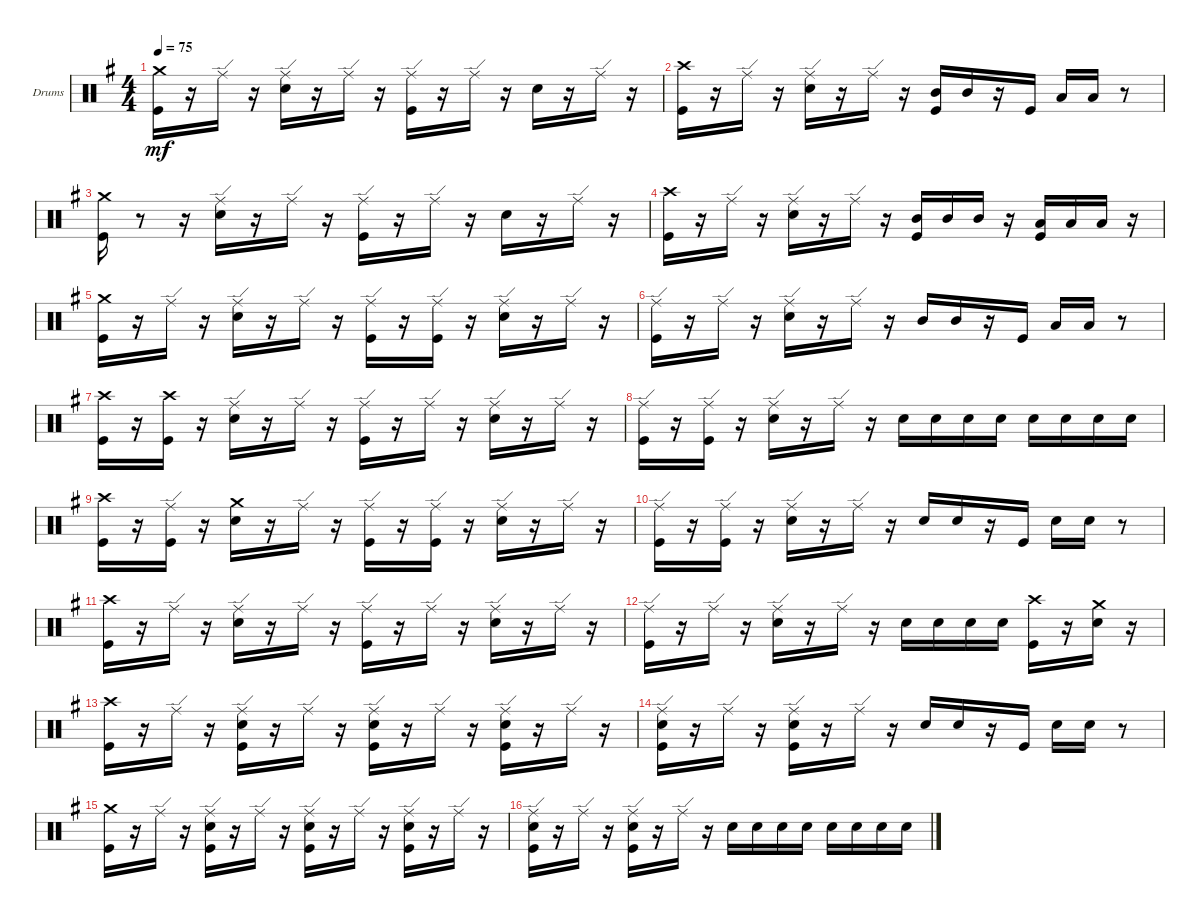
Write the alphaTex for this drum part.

\bracketExtendMode groupsimilarinstruments
\firstSystemTrackNameOrientation horizontal
\otherSystemsTrackNameOrientation horizontal
\track ("Drumkit" "Drums") {instrument percussion}
\staff {score}
\articulation defaults
\ts (4 4)
\tempo 75
\clef neutral
\ks eminor
("Kick (hit)" "Crash medium (hit)").16{dy mf} r.16 "Ride (edge)".16 r.16 ("Snare (hit) 2" "Ride (edge)").16 r.16 "Ride (edge)".16 r.16 ("Kick (hit)" "Ride (edge)").16 r.16 "Ride (edge)".16 r.16 "Snare (hit) 2".16 r.16 "Ride (edge)".16 r.16 |
("Kick (hit)" "Crash high (hit)").16 r.16 "Ride (edge)".16 r.16 ("Snare (hit) 2" "Ride (edge)").16 r.16 "Ride (edge)".16 r.16 ("Kick (hit)" "Mid Tom (hit)").16 "Mid Tom (hit)".16 r.16 "Kick (hit)".16 "Low Tom (hit)".16 "Low Tom (hit)".16 r.8 |
("Kick (hit)" "Crash medium (hit)").16 r.8 r.16 ("Snare (hit) 2" "Ride (edge)").16 r.16 "Ride (edge)".16 r.16 ("Kick (hit)" "Ride (edge)").16 r.16 "Ride (edge)".16 r.16 "Snare (hit) 2".16 r.16 "Ride (edge)".16 r.16 |
("Kick (hit)" "Crash high (hit)").16 r.16 "Ride (edge)".16 r.16 ("Snare (hit) 2" "Ride (edge)").16 r.16 "Ride (edge)".16 r.16 ("Kick (hit)" "Mid Tom (hit)").16 "Mid Tom (hit)".16 "Mid Tom (hit)".16 r.16 ("Kick (hit)" "Low Tom (hit)").16 "Low Tom (hit)".16 "Low Tom (hit)".16 r.16 |
("Kick (hit)" "Crash medium (hit)").16 r.16 "Ride (edge)".16 r.16 ("Snare (hit) 2" "Ride (edge)").16 r.16 "Ride (edge)".16 r.16 ("Kick (hit)" "Ride (edge)").16 r.16 ("Kick (hit)" "Ride (edge)").16 r.16 ("Snare (hit) 2" "Ride (edge)").16 r.16 "Ride (edge)".16 r.16 |
("Kick (hit)" "Ride (edge)").16 r.16 "Ride (edge)".16 r.16 ("Snare (hit) 2" "Ride (edge)").16 r.16 "Ride (edge)".16 r.16 "Mid Tom (hit)".16 "Mid Tom (hit)".16 r.16 "Kick (hit)".16 "Low Tom (hit)".16 "Low Tom (hit)".16 r.8 |
("Kick (hit)" "Crash high (hit)").16 r.16 ("Kick (hit)" "Crash high (hit)").16 r.16 ("Snare (hit) 2" "Ride (edge)").16 r.16 "Ride (edge)".16 r.16 ("Kick (hit)" "Ride (edge)").16 r.16 "Ride (edge)".16 r.16 ("Snare (hit) 2" "Ride (edge)").16 r.16 "Ride (edge)".16 r.16 |
("Kick (hit)" "Ride (edge)").16 r.16 ("Kick (hit)" "Ride (edge)").16 r.16 ("Snare (hit) 2" "Ride (edge)").16 r.16 "Ride (edge)".16 r.16 "Snare (hit) 2".16 "Snare (hit) 2".16 "Snare (hit) 2".16 "Snare (hit) 2".16 "Snare (hit) 2".16 "Snare (hit) 2".16 "Snare (hit) 2".16 "Snare (hit) 2".16 |
("Kick (hit)" "Crash high (hit)").16 r.16 ("Kick (hit)" "Ride (edge)").16 r.16 ("Snare (hit) 2" "Crash medium (hit)").16 r.16 "Ride (edge)".16 r.16 ("Kick (hit)" "Ride (edge)").16 r.16 ("Kick (hit)" "Ride (edge)").16 r.16 ("Snare (hit) 2" "Ride (edge)").16 r.16 "Ride (edge)".16 r.16 |
("Kick (hit)" "Ride (edge)").16 r.16 ("Kick (hit)" "Ride (edge)").16 r.16 ("Snare (hit) 2" "Ride (edge)").16 r.16 "Ride (edge)".16 r.16 "Snare (hit) 2".16 "Snare (hit) 2".16 r.16 "Kick (hit)".16 "Snare (hit) 2".16 "Snare (hit) 2".16 r.8 |
("Kick (hit)" "Crash high (hit)").16 r.16 "Ride (edge)".16 r.16 ("Snare (hit) 2" "Ride (edge)").16 r.16 "Ride (edge)".16 r.16 ("Kick (hit)" "Ride (edge)").16 r.16 "Ride (edge)".16 r.16 ("Snare (hit) 2" "Ride (edge)").16 r.16 "Ride (edge)".16 r.16 |
("Kick (hit)" "Ride (edge)").16 r.16 "Ride (edge)".16 r.16 ("Snare (hit) 2" "Ride (edge)").16 r.16 "Ride (edge)".16 r.16 "Snare (hit) 2".16 "Snare (hit) 2".16 "Snare (hit) 2".16 "Snare (hit) 2".16 ("Kick (hit)" "Crash high (hit)").16 r.16 ("Snare (hit) 2" "Crash medium (hit)").16 r.16 |
("Kick (hit)" "Crash high (hit)").16 r.16 "Ride (edge)".16 r.16 ("Kick (hit)" "Snare (hit) 2" "Ride (edge)").16 r.16 "Ride (edge)".16 r.16 ("Kick (hit)" "Snare (hit) 2" "Ride (edge)").16 r.16 "Ride (edge)".16 r.16 ("Kick (hit)" "Snare (hit) 2" "Ride (edge)").16 r.16 "Ride (edge)".16 r.16 |
("Kick (hit)" "Snare (hit) 2" "Ride (edge)").16 r.16 "Ride (edge)".16 r.16 ("Kick (hit)" "Snare (hit) 2" "Ride (edge)").16 r.16 "Ride (edge)".16 r.16 "Snare (hit) 2".16 "Snare (hit) 2".16 r.16 "Kick (hit)".16 "Snare (hit) 2".16 "Snare (hit) 2".16 r.8 |
("Kick (hit)" "Crash medium (hit)").16 r.16 "Ride (edge)".16 r.16 ("Kick (hit)" "Snare (hit) 2" "Ride (edge)").16 r.16 "Ride (edge)".16 r.16 ("Kick (hit)" "Snare (hit) 2" "Ride (edge)").16 r.16 "Ride (edge)".16 r.16 ("Kick (hit)" "Snare (hit) 2" "Ride (edge)").16 r.16 "Ride (edge)".16 r.16 |
("Kick (hit)" "Snare (hit) 2" "Ride (edge)").16 r.16 "Ride (edge)".16 r.16 ("Kick (hit)" "Snare (hit) 2" "Ride (edge)").16 r.16 "Ride (edge)".16 r.16 "Snare (hit) 2".16 "Snare (hit) 2".16 "Snare (hit) 2".16 "Snare (hit) 2".16 "Snare (hit) 2".16 "Snare (hit) 2".16 "Snare (hit) 2".16 "Snare (hit) 2".16
